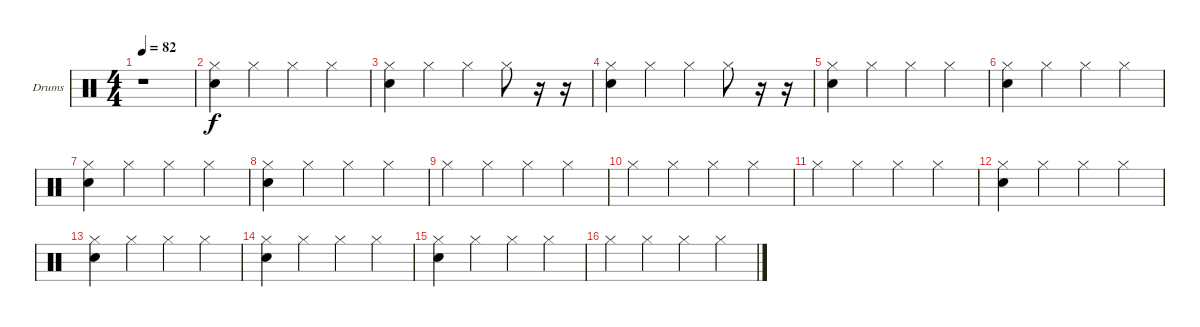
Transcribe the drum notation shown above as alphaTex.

\bracketExtendMode groupsimilarinstruments
\firstSystemTrackNameOrientation horizontal
\otherSystemsTrackNameOrientation horizontal
\track ("Matt Sorum - Drums" "Drums") {instrument percussion}
\staff {score}
\articulation defaults
\ts (4 4)
\beaming (8 2 2 2 2)
\tempo 82
\clef neutral
\ks aminor
r.1{dy f} |
("Snare (hit) 2" "Hi-Hat (closed)").4 "Hi-Hat (closed)".4 "Hi-Hat (closed)".4 "Hi-Hat (closed)".4 |
("Snare (hit) 2" "Hi-Hat (closed)").4 "Hi-Hat (closed)".4 "Hi-Hat (closed)".4 "Hi-Hat (closed)".8 r.16 r.16 |
("Snare (hit) 2" "Hi-Hat (closed)").4 "Hi-Hat (closed)".4 "Hi-Hat (closed)".4 "Hi-Hat (closed)".8 r.16 r.16 |
("Snare (hit) 2" "Hi-Hat (closed)").4 "Hi-Hat (closed)".4 "Hi-Hat (closed)".4 "Hi-Hat (closed)".4 |
("Snare (hit) 2" "Hi-Hat (closed)").4 "Hi-Hat (closed)".4 "Hi-Hat (closed)".4 "Hi-Hat (closed)".4 |
("Snare (hit) 2" "Hi-Hat (closed)").4 "Hi-Hat (closed)".4 "Hi-Hat (closed)".4 "Hi-Hat (closed)".4 |
("Snare (hit) 2" "Hi-Hat (closed)").4 "Hi-Hat (closed)".4 "Hi-Hat (closed)".4 "Hi-Hat (closed)".4 |
"Hi-Hat (closed)".4 "Hi-Hat (closed)".4 "Hi-Hat (closed)".4 "Hi-Hat (closed)".4 |
"Hi-Hat (closed)".4 "Hi-Hat (closed)".4 "Hi-Hat (closed)".4 "Hi-Hat (closed)".4 |
"Hi-Hat (closed)".4 "Hi-Hat (closed)".4 "Hi-Hat (closed)".4 "Hi-Hat (closed)".4 |
("Snare (hit) 2" "Hi-Hat (closed)").4 "Hi-Hat (closed)".4 "Hi-Hat (closed)".4 "Hi-Hat (closed)".4 |
("Snare (hit) 2" "Hi-Hat (closed)").4 "Hi-Hat (closed)".4 "Hi-Hat (closed)".4 "Hi-Hat (closed)".4 |
("Snare (hit) 2" "Hi-Hat (closed)").4 "Hi-Hat (closed)".4 "Hi-Hat (closed)".4 "Hi-Hat (closed)".4 |
("Snare (hit) 2" "Hi-Hat (closed)").4 "Hi-Hat (closed)".4 "Hi-Hat (closed)".4 "Hi-Hat (closed)".4 |
"Hi-Hat (closed)".4 "Hi-Hat (closed)".4 "Hi-Hat (closed)".4 "Hi-Hat (closed)".4
